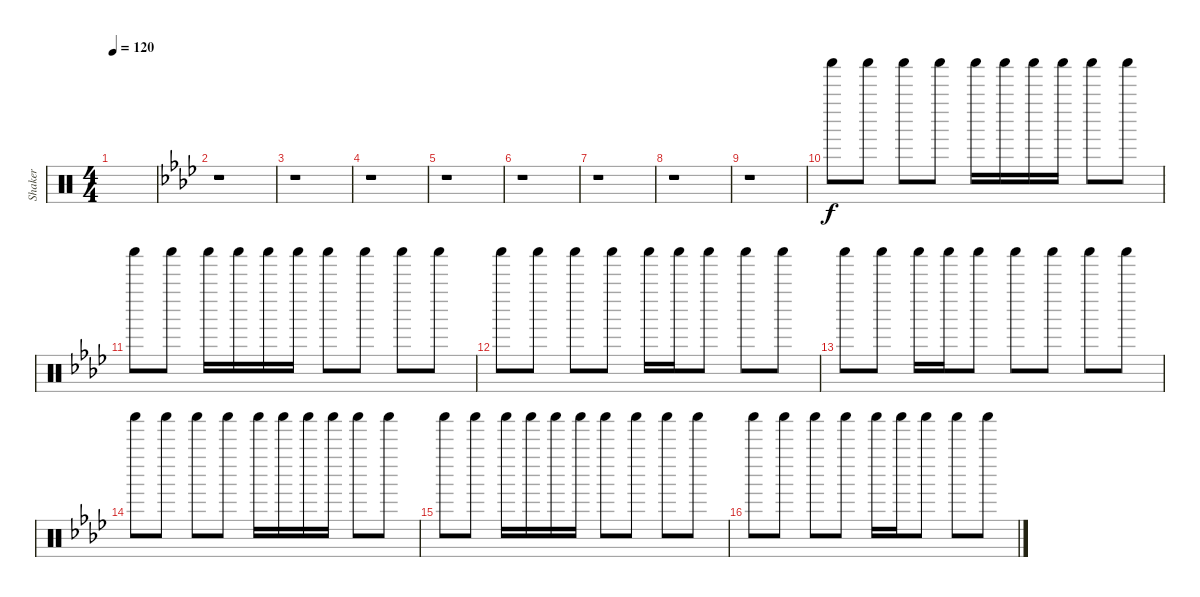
\track ("Shaker" "Shaker") {instrument percussion}
\staff {score}
\articulation defaults
\ts (4 4)
\tempo 120
\clef neutral
\ks c
|
\ks ab
r.1 |
r.1 |
r.1 |
r.1 |
r.1 |
r.1 |
r.1 |
r.1 |
"Shaker (hit)".8 "Shaker (hit)".8 "Shaker (hit)".8 "Shaker (hit)".8 "Shaker (hit)".16 "Shaker (hit)".16 "Shaker (hit)".16 "Shaker (hit)".16 "Shaker (hit)".8 "Shaker (hit)".8 |
"Shaker (hit)".8 "Shaker (hit)".8 "Shaker (hit)".16 "Shaker (hit)".16 "Shaker (hit)".16 "Shaker (hit)".16 "Shaker (hit)".8 "Shaker (hit)".8 "Shaker (hit)".8 "Shaker (hit)".8 |
"Shaker (hit)".8 "Shaker (hit)".8 "Shaker (hit)".8 "Shaker (hit)".8 "Shaker (hit)".16 "Shaker (hit)".16 "Shaker (hit)".8 "Shaker (hit)".8 "Shaker (hit)".8 |
"Shaker (hit)".8 "Shaker (hit)".8 "Shaker (hit)".16 "Shaker (hit)".16 "Shaker (hit)".8 "Shaker (hit)".8 "Shaker (hit)".8 "Shaker (hit)".8 "Shaker (hit)".8 |
"Shaker (hit)".8 "Shaker (hit)".8 "Shaker (hit)".8 "Shaker (hit)".8 "Shaker (hit)".16 "Shaker (hit)".16 "Shaker (hit)".16 "Shaker (hit)".16 "Shaker (hit)".8 "Shaker (hit)".8 |
"Shaker (hit)".8 "Shaker (hit)".8 "Shaker (hit)".16 "Shaker (hit)".16 "Shaker (hit)".16 "Shaker (hit)".16 "Shaker (hit)".8 "Shaker (hit)".8 "Shaker (hit)".8 "Shaker (hit)".8 |
"Shaker (hit)".8 "Shaker (hit)".8 "Shaker (hit)".8 "Shaker (hit)".8 "Shaker (hit)".16 "Shaker (hit)".16 "Shaker (hit)".8 "Shaker (hit)".8 "Shaker (hit)".8
